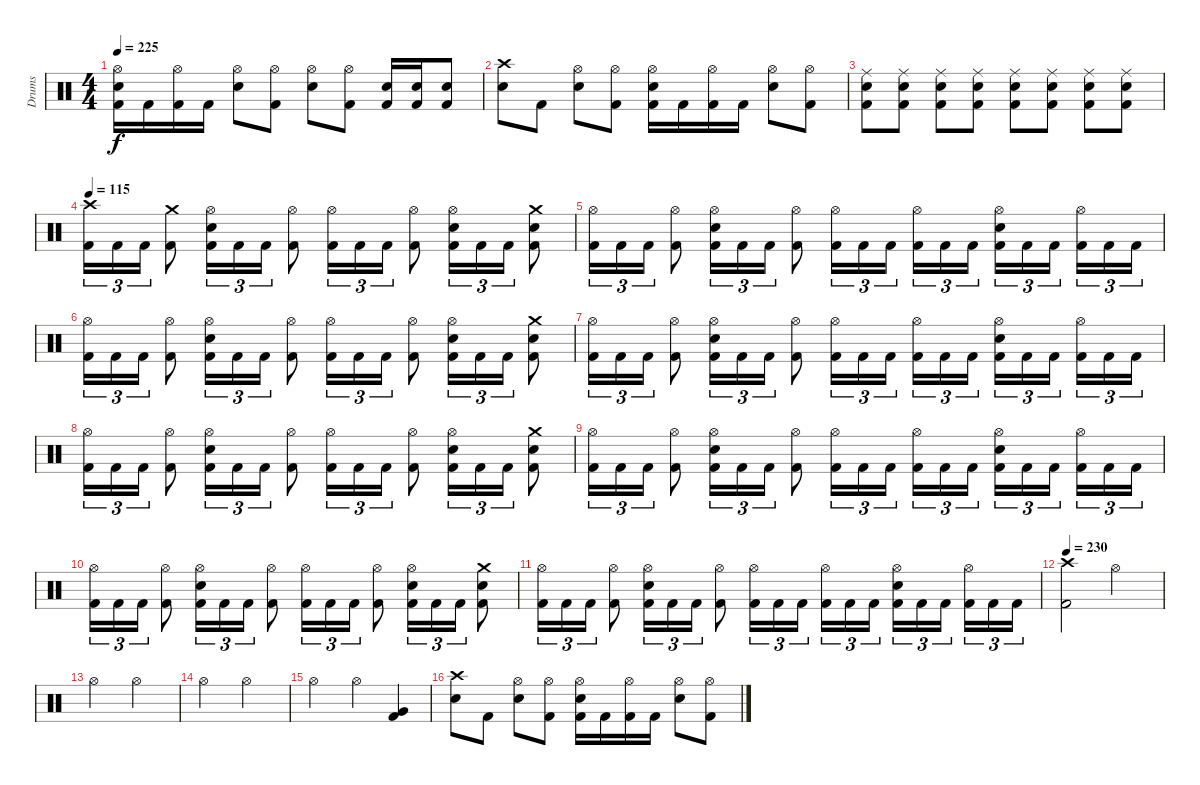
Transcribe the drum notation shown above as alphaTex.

\track ("Drums" "Drums") {instrument percussion}
\staff {score}
\articulation defaults
\ts (4 4)
\tempo 225
\clef neutral
\ks c
("Hi-Hat (open)" "Electric Snare (hit)" "Kick (hit) 2").16{dy f} "Kick (hit) 2".16 ("Hi-Hat (open)" "Kick (hit) 2").16 "Kick (hit) 2".16 ("Hi-Hat (open)" "Electric Snare (hit)").8 ("Hi-Hat (open)" "Kick (hit) 2").8 ("Hi-Hat (open)" "Electric Snare (hit)").8 ("Hi-Hat (open)" "Kick (hit) 2").8 ("Electric Snare (hit)" "Kick (hit) 2").16 ("Electric Snare (hit)" "Kick (hit) 2").16 ("Electric Snare (hit)" "Kick (hit) 2").8 |
("Crash high (hit)" "Electric Snare (hit)").8 "Kick (hit) 2".8 ("Hi-Hat (open)" "Electric Snare (hit)").8 ("Hi-Hat (open)" "Kick (hit) 2").8 ("Hi-Hat (open)" "Electric Snare (hit)" "Kick (hit) 2").16 "Kick (hit) 2".16 ("Hi-Hat (open)" "Kick (hit) 2").16 "Kick (hit) 2".16 ("Hi-Hat (open)" "Electric Snare (hit)").8 ("Hi-Hat (open)" "Kick (hit) 2").8 |
("Ride (middle)" "Electric Snare (hit)" "Kick (hit) 2").8 ("Ride (middle)" "Electric Snare (hit)" "Kick (hit) 2").8 ("Ride (middle)" "Electric Snare (hit)" "Kick (hit) 2").8 ("Ride (middle)" "Electric Snare (hit)" "Kick (hit) 2").8 ("Ride (middle)" "Electric Snare (hit)" "Kick (hit) 2").8 ("Ride (middle)" "Electric Snare (hit)" "Kick (hit) 2").8 ("Ride (middle)" "Electric Snare (hit)" "Kick (hit) 2").8 ("Ride (middle)" "Electric Snare (hit)" "Kick (hit) 2").8 |
\tempo 115
("Crash high (hit)" "Kick (hit) 2").16{tu (3 2)} "Kick (hit) 2".16{tu (3 2)} "Kick (hit) 2".16{tu (3 2)} ("Crash medium (hit)" "Kick (hit) 2").8 ("Hi-Hat (open)" "Electric Snare (hit)" "Kick (hit) 2").16{tu (3 2)} "Kick (hit) 2".16{tu (3 2)} "Kick (hit) 2".16{tu (3 2)} ("Hi-Hat (open)" "Kick (hit) 2").8 ("Hi-Hat (open)" "Kick (hit) 2").16{tu (3 2)} "Kick (hit) 2".16{tu (3 2)} "Kick (hit) 2".16{tu (3 2)} ("Hi-Hat (open)" "Kick (hit) 2").8 ("Hi-Hat (open)" "Electric Snare (hit)" "Kick (hit) 2").16{tu (3 2)} "Kick (hit) 2".16{tu (3 2)} "Kick (hit) 2".16{tu (3 2)} ("Crash medium (hit)" "Electric Snare (hit)" "Kick (hit) 2").8 |
("Hi-Hat (open)" "Kick (hit) 2").16{tu (3 2)} "Kick (hit) 2".16{tu (3 2)} "Kick (hit) 2".16{tu (3 2)} ("Hi-Hat (open)" "Kick (hit) 2").8 ("Hi-Hat (open)" "Electric Snare (hit)" "Kick (hit) 2").16{tu (3 2)} "Kick (hit) 2".16{tu (3 2)} "Kick (hit) 2".16{tu (3 2)} ("Hi-Hat (open)" "Kick (hit) 2").8 ("Hi-Hat (open)" "Kick (hit) 2").16{tu (3 2)} "Kick (hit) 2".16{tu (3 2)} "Kick (hit) 2".16{tu (3 2) beam splitsecondary} ("Hi-Hat (open)" "Kick (hit) 2").16{tu (3 2)} "Kick (hit) 2".16{tu (3 2)} "Kick (hit) 2".16{tu (3 2)} ("Hi-Hat (open)" "Electric Snare (hit)" "Kick (hit) 2").16{tu (3 2)} "Kick (hit) 2".16{tu (3 2)} "Kick (hit) 2".16{tu (3 2) beam splitsecondary} ("Hi-Hat (open)" "Kick (hit) 2").16{tu (3 2)} "Kick (hit) 2".16{tu (3 2)} "Kick (hit) 2".16{tu (3 2)} |
("Hi-Hat (open)" "Kick (hit) 2").16{tu (3 2)} "Kick (hit) 2".16{tu (3 2)} "Kick (hit) 2".16{tu (3 2)} ("Hi-Hat (open)" "Kick (hit) 2").8 ("Hi-Hat (open)" "Electric Snare (hit)" "Kick (hit) 2").16{tu (3 2)} "Kick (hit) 2".16{tu (3 2)} "Kick (hit) 2".16{tu (3 2)} ("Hi-Hat (open)" "Kick (hit) 2").8 ("Hi-Hat (open)" "Kick (hit) 2").16{tu (3 2)} "Kick (hit) 2".16{tu (3 2)} "Kick (hit) 2".16{tu (3 2)} ("Hi-Hat (open)" "Kick (hit) 2").8 ("Hi-Hat (open)" "Electric Snare (hit)" "Kick (hit) 2").16{tu (3 2)} "Kick (hit) 2".16{tu (3 2)} "Kick (hit) 2".16{tu (3 2)} ("Crash medium (hit)" "Electric Snare (hit)" "Kick (hit) 2").8 |
("Hi-Hat (open)" "Kick (hit) 2").16{tu (3 2)} "Kick (hit) 2".16{tu (3 2)} "Kick (hit) 2".16{tu (3 2)} ("Hi-Hat (open)" "Kick (hit) 2").8 ("Hi-Hat (open)" "Electric Snare (hit)" "Kick (hit) 2").16{tu (3 2)} "Kick (hit) 2".16{tu (3 2)} "Kick (hit) 2".16{tu (3 2)} ("Hi-Hat (open)" "Kick (hit) 2").8 ("Hi-Hat (open)" "Kick (hit) 2").16{tu (3 2)} "Kick (hit) 2".16{tu (3 2)} "Kick (hit) 2".16{tu (3 2) beam splitsecondary} ("Hi-Hat (open)" "Kick (hit) 2").16{tu (3 2)} "Kick (hit) 2".16{tu (3 2)} "Kick (hit) 2".16{tu (3 2)} ("Hi-Hat (open)" "Electric Snare (hit)" "Kick (hit) 2").16{tu (3 2)} "Kick (hit) 2".16{tu (3 2)} "Kick (hit) 2".16{tu (3 2) beam splitsecondary} ("Hi-Hat (open)" "Kick (hit) 2").16{tu (3 2)} "Kick (hit) 2".16{tu (3 2)} "Kick (hit) 2".16{tu (3 2)} |
("Hi-Hat (open)" "Kick (hit) 2").16{tu (3 2)} "Kick (hit) 2".16{tu (3 2)} "Kick (hit) 2".16{tu (3 2)} ("Hi-Hat (open)" "Kick (hit) 2").8 ("Hi-Hat (open)" "Electric Snare (hit)" "Kick (hit) 2").16{tu (3 2)} "Kick (hit) 2".16{tu (3 2)} "Kick (hit) 2".16{tu (3 2)} ("Hi-Hat (open)" "Kick (hit) 2").8 ("Hi-Hat (open)" "Kick (hit) 2").16{tu (3 2)} "Kick (hit) 2".16{tu (3 2)} "Kick (hit) 2".16{tu (3 2)} ("Hi-Hat (open)" "Kick (hit) 2").8 ("Hi-Hat (open)" "Electric Snare (hit)" "Kick (hit) 2").16{tu (3 2)} "Kick (hit) 2".16{tu (3 2)} "Kick (hit) 2".16{tu (3 2)} ("Crash medium (hit)" "Electric Snare (hit)" "Kick (hit) 2").8 |
("Hi-Hat (open)" "Kick (hit) 2").16{tu (3 2)} "Kick (hit) 2".16{tu (3 2)} "Kick (hit) 2".16{tu (3 2)} ("Hi-Hat (open)" "Kick (hit) 2").8 ("Hi-Hat (open)" "Electric Snare (hit)" "Kick (hit) 2").16{tu (3 2)} "Kick (hit) 2".16{tu (3 2)} "Kick (hit) 2".16{tu (3 2)} ("Hi-Hat (open)" "Kick (hit) 2").8 ("Hi-Hat (open)" "Kick (hit) 2").16{tu (3 2)} "Kick (hit) 2".16{tu (3 2)} "Kick (hit) 2".16{tu (3 2) beam splitsecondary} ("Hi-Hat (open)" "Kick (hit) 2").16{tu (3 2)} "Kick (hit) 2".16{tu (3 2)} "Kick (hit) 2".16{tu (3 2)} ("Hi-Hat (open)" "Electric Snare (hit)" "Kick (hit) 2").16{tu (3 2)} "Kick (hit) 2".16{tu (3 2)} "Kick (hit) 2".16{tu (3 2) beam splitsecondary} ("Hi-Hat (open)" "Kick (hit) 2").16{tu (3 2)} "Kick (hit) 2".16{tu (3 2)} "Kick (hit) 2".16{tu (3 2)} |
("Hi-Hat (open)" "Kick (hit) 2").16{tu (3 2)} "Kick (hit) 2".16{tu (3 2)} "Kick (hit) 2".16{tu (3 2)} ("Hi-Hat (open)" "Kick (hit) 2").8 ("Hi-Hat (open)" "Electric Snare (hit)" "Kick (hit) 2").16{tu (3 2)} "Kick (hit) 2".16{tu (3 2)} "Kick (hit) 2".16{tu (3 2)} ("Hi-Hat (open)" "Kick (hit) 2").8 ("Hi-Hat (open)" "Kick (hit) 2").16{tu (3 2)} "Kick (hit) 2".16{tu (3 2)} "Kick (hit) 2".16{tu (3 2)} ("Hi-Hat (open)" "Kick (hit) 2").8 ("Hi-Hat (open)" "Electric Snare (hit)" "Kick (hit) 2").16{tu (3 2)} "Kick (hit) 2".16{tu (3 2)} "Kick (hit) 2".16{tu (3 2)} ("Crash medium (hit)" "Electric Snare (hit)" "Kick (hit) 2").8 |
("Hi-Hat (open)" "Kick (hit) 2").16{tu (3 2)} "Kick (hit) 2".16{tu (3 2)} "Kick (hit) 2".16{tu (3 2)} ("Hi-Hat (open)" "Kick (hit) 2").8 ("Hi-Hat (open)" "Electric Snare (hit)" "Kick (hit) 2").16{tu (3 2)} "Kick (hit) 2".16{tu (3 2)} "Kick (hit) 2".16{tu (3 2)} ("Hi-Hat (open)" "Kick (hit) 2").8 ("Hi-Hat (open)" "Kick (hit) 2").16{tu (3 2)} "Kick (hit) 2".16{tu (3 2)} "Kick (hit) 2".16{tu (3 2) beam splitsecondary} ("Hi-Hat (open)" "Kick (hit) 2").16{tu (3 2)} "Kick (hit) 2".16{tu (3 2)} "Kick (hit) 2".16{tu (3 2)} ("Hi-Hat (open)" "Electric Snare (hit)" "Kick (hit) 2").16{tu (3 2)} "Kick (hit) 2".16{tu (3 2)} "Kick (hit) 2".16{tu (3 2) beam splitsecondary} ("Hi-Hat (open)" "Kick (hit) 2").16{tu (3 2)} "Kick (hit) 2".16{tu (3 2)} "Kick (hit) 2".16{tu (3 2)} |
\tempo 230
("Crash high (hit)" "Kick (hit) 2").2 "Hi-Hat (open)".2 |
"Hi-Hat (open)".2 "Hi-Hat (open)".2 |
"Hi-Hat (open)".2 "Hi-Hat (open)".2 |
"Hi-Hat (open)".2 "Hi-Hat (open)".4 ("Very Low Tom (hit)" "Kick (hit) 2").4 |
("Crash high (hit)" "Electric Snare (hit)").8 "Kick (hit) 2".8 ("Hi-Hat (open)" "Electric Snare (hit)").8 ("Hi-Hat (open)" "Kick (hit) 2").8 ("Hi-Hat (open)" "Electric Snare (hit)" "Kick (hit) 2").16 "Kick (hit) 2".16 ("Hi-Hat (open)" "Kick (hit) 2").16 "Kick (hit) 2".16 ("Hi-Hat (open)" "Electric Snare (hit)").8 ("Hi-Hat (open)" "Kick (hit) 2").8
